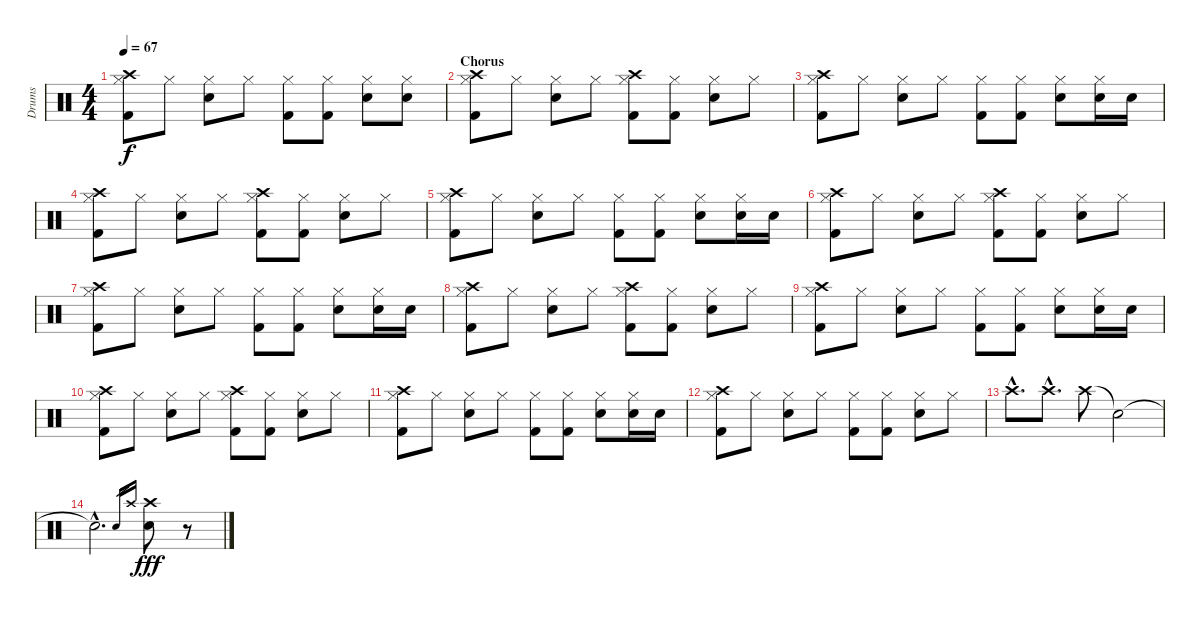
\track ("Drums" "Drums") {instrument percussion}
\staff {score}
\articulation defaults
\ts (4 4)
\tempo 67
\clef neutral
\ks c
("Crash high (hit)" "Hi-Hat (closed)" "Kick (hit) 2").8{dy f} "Hi-Hat (closed)".8 ("Hi-Hat (closed)" "Snare (hit) 2").8 "Hi-Hat (closed)".8 ("Hi-Hat (closed)" "Kick (hit) 2").8 ("Hi-Hat (closed)" "Kick (hit) 2").8 ("Hi-Hat (closed)" "Snare (hit) 2").8 ("Hi-Hat (closed)" "Snare (hit) 2").8 |
\section ("" "Chorus")
("Hi-Hat (closed)" "Kick (hit) 2" "Crash high (hit)").8 "Hi-Hat (closed)".8 ("Hi-Hat (closed)" "Snare (hit) 2").8 "Hi-Hat (closed)".8 ("Hi-Hat (closed)" "Kick (hit) 2" "Crash high (hit)").8 ("Hi-Hat (closed)" "Kick (hit) 2").8 ("Hi-Hat (closed)" "Snare (hit) 2").8 "Hi-Hat (closed)".8 |
("Hi-Hat (closed)" "Kick (hit) 2" "Crash high (hit)").8 "Hi-Hat (closed)".8 ("Hi-Hat (closed)" "Snare (hit) 2").8 "Hi-Hat (closed)".8 ("Hi-Hat (closed)" "Kick (hit) 2").8 ("Hi-Hat (closed)" "Kick (hit) 2").8 ("Hi-Hat (closed)" "Snare (hit) 2").8 ("Hi-Hat (closed)" "Snare (hit) 2").16 "Snare (hit) 2".16 |
("Hi-Hat (closed)" "Kick (hit) 2" "Crash high (hit)").8 "Hi-Hat (closed)".8 ("Hi-Hat (closed)" "Snare (hit) 2").8 "Hi-Hat (closed)".8 ("Hi-Hat (closed)" "Kick (hit) 2" "Crash high (hit)").8 ("Hi-Hat (closed)" "Kick (hit) 2").8 ("Hi-Hat (closed)" "Snare (hit) 2").8 "Hi-Hat (closed)".8 |
("Hi-Hat (closed)" "Kick (hit) 2" "Crash high (hit)").8 "Hi-Hat (closed)".8 ("Hi-Hat (closed)" "Snare (hit) 2").8 "Hi-Hat (closed)".8 ("Hi-Hat (closed)" "Kick (hit) 2").8 ("Hi-Hat (closed)" "Kick (hit) 2").8 ("Hi-Hat (closed)" "Snare (hit) 2").8 ("Hi-Hat (closed)" "Snare (hit) 2").16 "Snare (hit) 2".16 |
("Hi-Hat (closed)" "Kick (hit) 2" "Crash high (hit)").8 "Hi-Hat (closed)".8 ("Hi-Hat (closed)" "Snare (hit) 2").8 "Hi-Hat (closed)".8 ("Hi-Hat (closed)" "Kick (hit) 2" "Crash high (hit)").8 ("Hi-Hat (closed)" "Kick (hit) 2").8 ("Hi-Hat (closed)" "Snare (hit) 2").8 "Hi-Hat (closed)".8 |
("Hi-Hat (closed)" "Kick (hit) 2" "Crash high (hit)").8 "Hi-Hat (closed)".8 ("Hi-Hat (closed)" "Snare (hit) 2").8 "Hi-Hat (closed)".8 ("Hi-Hat (closed)" "Kick (hit) 2").8 ("Hi-Hat (closed)" "Kick (hit) 2").8 ("Hi-Hat (closed)" "Snare (hit) 2").8 ("Hi-Hat (closed)" "Snare (hit) 2").16 "Snare (hit) 2".16 |
("Hi-Hat (closed)" "Kick (hit) 2" "Crash high (hit)").8 "Hi-Hat (closed)".8 ("Hi-Hat (closed)" "Snare (hit) 2").8 "Hi-Hat (closed)".8 ("Hi-Hat (closed)" "Kick (hit) 2" "Crash high (hit)").8 ("Hi-Hat (closed)" "Kick (hit) 2").8 ("Hi-Hat (closed)" "Snare (hit) 2").8 "Hi-Hat (closed)".8 |
("Hi-Hat (closed)" "Kick (hit) 2" "Crash high (hit)").8 "Hi-Hat (closed)".8 ("Hi-Hat (closed)" "Snare (hit) 2").8 "Hi-Hat (closed)".8 ("Hi-Hat (closed)" "Kick (hit) 2").8 ("Hi-Hat (closed)" "Kick (hit) 2").8 ("Hi-Hat (closed)" "Snare (hit) 2").8 ("Hi-Hat (closed)" "Snare (hit) 2").16 "Snare (hit) 2".16 |
("Hi-Hat (closed)" "Kick (hit) 2" "Crash high (hit)").8 "Hi-Hat (closed)".8 ("Hi-Hat (closed)" "Snare (hit) 2").8 "Hi-Hat (closed)".8 ("Hi-Hat (closed)" "Kick (hit) 2" "Crash high (hit)").8 ("Hi-Hat (closed)" "Kick (hit) 2").8 ("Hi-Hat (closed)" "Snare (hit) 2").8 "Hi-Hat (closed)".8 |
("Hi-Hat (closed)" "Kick (hit) 2" "Crash high (hit)").8 "Hi-Hat (closed)".8 ("Hi-Hat (closed)" "Snare (hit) 2").8 "Hi-Hat (closed)".8 ("Hi-Hat (closed)" "Kick (hit) 2").8 ("Hi-Hat (closed)" "Kick (hit) 2").8 ("Hi-Hat (closed)" "Snare (hit) 2").8 ("Hi-Hat (closed)" "Snare (hit) 2").16 "Snare (hit) 2".16 |
("Hi-Hat (closed)" "Kick (hit) 2" "Crash high (hit)").8 "Hi-Hat (closed)".8 ("Hi-Hat (closed)" "Snare (hit) 2").8 "Hi-Hat (closed)".8 ("Hi-Hat (closed)" "Kick (hit) 2").8 ("Hi-Hat (closed)" "Kick (hit) 2").8 ("Hi-Hat (closed)" "Snare (hit) 2").8 "Hi-Hat (closed)".8 |
"Crash high (hit)"{hac}.8{d} "Crash high (hit)"{hac}.8{d} "Crash high (hit)".8 "Snare (hit)"{t}.2 |
"Snare (hit)"{hac t}.2{d} "Snare (hit) 2".16{gr} "Crash high (hit)".16{gr} ("Snare (hit) 2" "Crash high (hit)").8{dy fff} r.8
